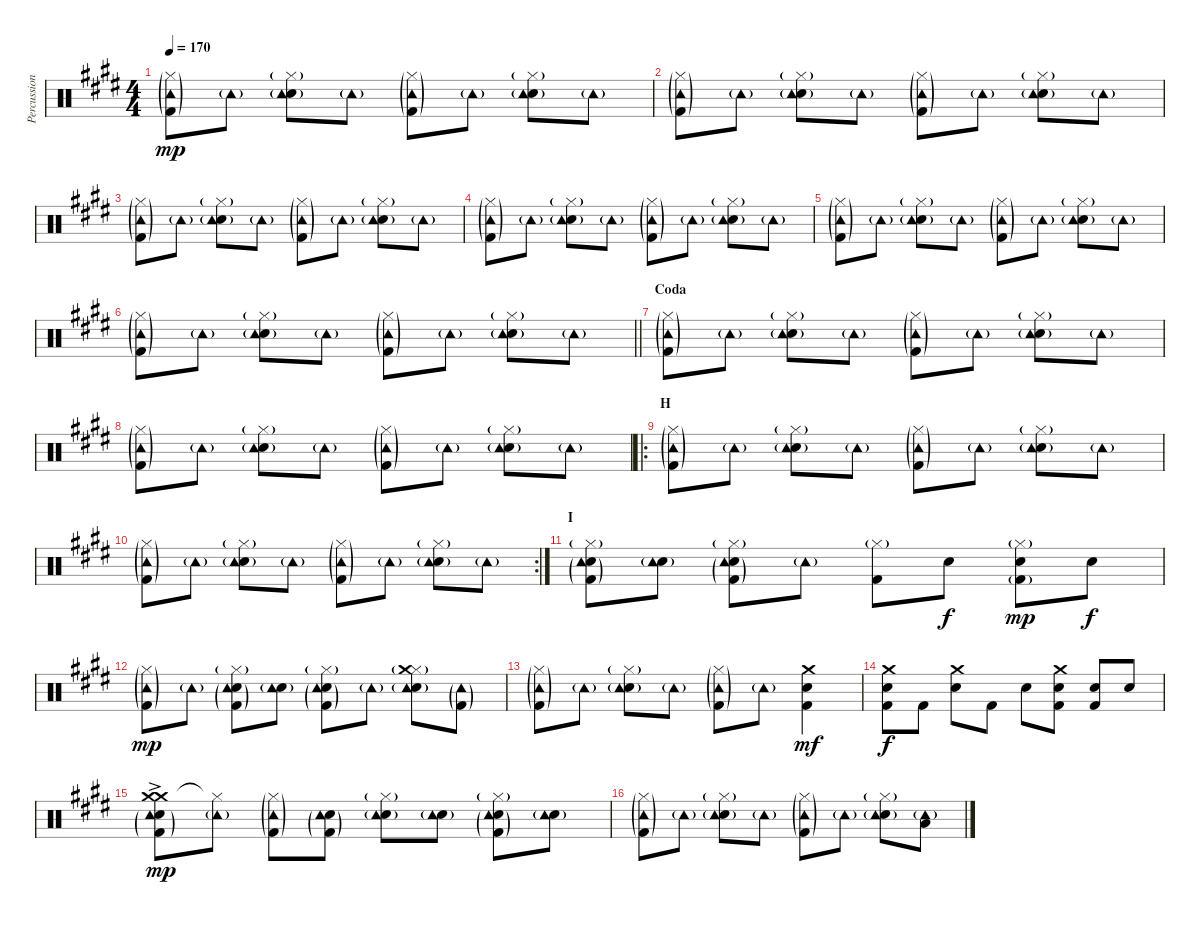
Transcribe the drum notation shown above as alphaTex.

\track ("Percussion" "Percussion") {instrument percussion}
\staff {score}
\articulation defaults
\ts (4 4)
\tempo 170
\clef neutral
\ks e
("Hi-Hat (closed)"{g} "Kick (hit) 2"{g} "Tambourine (hit)"{g}).8{dy mp} "Tambourine (hit)"{g}.8 ("Hi-Hat (closed)"{g} "Snare (hit) 2" "Tambourine (hit)"{g}).8 "Tambourine (hit)"{g}.8 ("Hi-Hat (closed)"{g} "Kick (hit) 2"{g} "Tambourine (hit)"{g}).8 "Tambourine (hit)"{g}.8 ("Hi-Hat (closed)"{g} "Snare (hit) 2" "Tambourine (hit)"{g}).8 "Tambourine (hit)"{g}.8 |
("Hi-Hat (closed)"{g} "Kick (hit) 2"{g} "Tambourine (hit)"{g}).8 "Tambourine (hit)"{g}.8 ("Hi-Hat (closed)"{g} "Snare (hit) 2" "Tambourine (hit)"{g}).8 "Tambourine (hit)"{g}.8 ("Hi-Hat (closed)"{g} "Kick (hit) 2"{g} "Tambourine (hit)"{g}).8 "Tambourine (hit)"{g}.8 ("Hi-Hat (closed)"{g} "Snare (hit) 2" "Tambourine (hit)"{g}).8 "Tambourine (hit)"{g}.8 |
("Hi-Hat (closed)"{g} "Kick (hit) 2"{g} "Tambourine (hit)"{g}).8 "Tambourine (hit)"{g}.8 ("Hi-Hat (closed)"{g} "Snare (hit) 2" "Tambourine (hit)"{g}).8 "Tambourine (hit)"{g}.8 ("Hi-Hat (closed)"{g} "Kick (hit) 2"{g} "Tambourine (hit)"{g}).8 "Tambourine (hit)"{g}.8 ("Hi-Hat (closed)"{g} "Snare (hit) 2" "Tambourine (hit)"{g}).8 "Tambourine (hit)"{g}.8 |
("Hi-Hat (closed)"{g} "Kick (hit) 2"{g} "Tambourine (hit)"{g}).8 "Tambourine (hit)"{g}.8 ("Hi-Hat (closed)"{g} "Snare (hit) 2" "Tambourine (hit)"{g}).8 "Tambourine (hit)"{g}.8 ("Hi-Hat (closed)"{g} "Kick (hit) 2"{g} "Tambourine (hit)"{g}).8 "Tambourine (hit)"{g}.8 ("Hi-Hat (closed)"{g} "Snare (hit) 2" "Tambourine (hit)"{g}).8 "Tambourine (hit)"{g}.8 |
("Hi-Hat (closed)"{g} "Kick (hit) 2"{g} "Tambourine (hit)"{g}).8 "Tambourine (hit)"{g}.8 ("Hi-Hat (closed)"{g} "Snare (hit) 2" "Tambourine (hit)"{g}).8 "Tambourine (hit)"{g}.8 ("Hi-Hat (closed)"{g} "Kick (hit) 2"{g} "Tambourine (hit)"{g}).8 "Tambourine (hit)"{g}.8 ("Hi-Hat (closed)"{g} "Snare (hit) 2" "Tambourine (hit)"{g}).8 "Tambourine (hit)"{g}.8 |
\barLineRight lightlight
("Hi-Hat (closed)"{g} "Kick (hit) 2"{g} "Tambourine (hit)"{g}).8 "Tambourine (hit)"{g}.8 ("Hi-Hat (closed)"{g} "Snare (hit) 2" "Tambourine (hit)"{g}).8 "Tambourine (hit)"{g}.8 ("Hi-Hat (closed)"{g} "Kick (hit) 2"{g} "Tambourine (hit)"{g}).8 "Tambourine (hit)"{g}.8 ("Hi-Hat (closed)"{g} "Snare (hit) 2" "Tambourine (hit)"{g}).8 "Tambourine (hit)"{g}.8 |
\section ("" "Coda")
("Hi-Hat (closed)"{g} "Kick (hit) 2"{g} "Tambourine (hit)"{g}).8 "Tambourine (hit)"{g}.8 ("Hi-Hat (closed)"{g} "Snare (hit) 2" "Tambourine (hit)"{g}).8 "Tambourine (hit)"{g}.8 ("Hi-Hat (closed)"{g} "Kick (hit) 2"{g} "Tambourine (hit)"{g}).8 "Tambourine (hit)"{g}.8 ("Hi-Hat (closed)"{g} "Snare (hit) 2" "Tambourine (hit)"{g}).8 "Tambourine (hit)"{g}.8 |
("Hi-Hat (closed)"{g} "Kick (hit) 2"{g} "Tambourine (hit)"{g}).8 "Tambourine (hit)"{g}.8 ("Hi-Hat (closed)"{g} "Snare (hit) 2" "Tambourine (hit)"{g}).8 "Tambourine (hit)"{g}.8 ("Hi-Hat (closed)"{g} "Kick (hit) 2"{g} "Tambourine (hit)"{g}).8 "Tambourine (hit)"{g}.8 ("Hi-Hat (closed)"{g} "Snare (hit) 2" "Tambourine (hit)"{g}).8 "Tambourine (hit)"{g}.8 |
\ro
\section ("" "H")
("Hi-Hat (closed)"{g} "Kick (hit) 2"{g} "Tambourine (hit)"{g}).8 "Tambourine (hit)"{g}.8 ("Hi-Hat (closed)"{g} "Snare (hit) 2" "Tambourine (hit)"{g}).8 "Tambourine (hit)"{g}.8 ("Hi-Hat (closed)"{g} "Kick (hit) 2"{g} "Tambourine (hit)"{g}).8 "Tambourine (hit)"{g}.8 ("Hi-Hat (closed)"{g} "Snare (hit) 2" "Tambourine (hit)"{g}).8 "Tambourine (hit)"{g}.8 |
\rc 2
("Hi-Hat (closed)"{g} "Kick (hit) 2"{g} "Tambourine (hit)"{g}).8 "Tambourine (hit)"{g}.8 ("Hi-Hat (closed)"{g} "Snare (hit) 2" "Tambourine (hit)"{g}).8 "Tambourine (hit)"{g}.8 ("Hi-Hat (closed)"{g} "Kick (hit) 2"{g} "Tambourine (hit)"{g}).8 "Tambourine (hit)"{g}.8 ("Hi-Hat (closed)"{g} "Snare (hit) 2" "Tambourine (hit)"{g}).8 "Tambourine (hit)"{g}.8 |
\section ("" "I")
("Hi-Hat (closed)"{g} "Snare (hit) 2" "Tambourine (hit)"{g} "Kick (hit) 2"{g}).8 ("Snare (hit) 2" "Tambourine (hit)"{g}).8 ("Hi-Hat (closed)"{g} "Snare (hit) 2" "Tambourine (hit)"{g} "Kick (hit) 2"{g}).8 "Tambourine (hit)"{g}.8 ("Hi-Hat (closed)"{g} "Kick (hit) 2").8 "Snare (hit) 2".8{dy f} ("Hi-Hat (closed)"{g} "Snare (hit) 2" "Kick (hit) 2"{g}).8{dy mp} "Snare (hit) 2".8{dy f} |
("Hi-Hat (closed)"{g} "Kick (hit) 2"{g} "Tambourine (hit)"{g}).8{dy mp} "Tambourine (hit)"{g}.8 ("Hi-Hat (closed)"{g} "Snare (hit) 2" "Tambourine (hit)"{g} "Kick (hit) 2"{g}).8 ("Snare (hit) 2" "Tambourine (hit)"{g}).8 ("Hi-Hat (closed)"{g} "Snare (hit) 2" "Tambourine (hit)"{g} "Kick (hit) 2"{g}).8 "Tambourine (hit)"{g}.8 ("Hi-Hat (closed)"{g} "Crash medium (hit)" "Snare (hit) 2" "Tambourine (hit)"{g}).8 ("Tambourine (hit)"{g} "Kick (hit) 2"{g}).8 |
("Hi-Hat (closed)"{g} "Tambourine (hit)"{g} "Kick (hit) 2"{g}).8 "Tambourine (hit)"{g}.8 ("Hi-Hat (closed)"{g} "Snare (hit) 2" "Tambourine (hit)"{g}).8 "Tambourine (hit)"{g}.8 ("Hi-Hat (closed)"{g} "Kick (hit) 2"{g} "Tambourine (hit)"{g}).8 "Tambourine (hit)"{g}.8 ("Crash medium (hit)" "Snare (hit) 2" "Kick (hit) 2").4{dy mf} |
("Crash medium (hit)" "Snare (hit) 2" "Kick (hit) 2").8{dy f} "Kick (hit) 2".8 ("Crash medium (hit)" "Snare (hit) 2").8 "Kick (hit) 2".8 "Snare (hit) 2".8 ("Crash medium (hit)" "Snare (hit) 2" "Kick (hit) 2").8 ("Snare (hit) 2" "Kick (hit) 2").8 "Snare (hit) 2".8 |
("Crash medium (hit)"{ac} "Crash medium (hit)"{ac} "Snare (hit) 2" "Tambourine (hit)"{g} "Kick (hit) 2"{g}).8{dy mp} ("Hi-Hat (closed)"{t} "Tambourine (hit)"{g}).8 ("Hi-Hat (closed)"{g} "Tambourine (hit)"{g} "Kick (hit) 2"{g}).8 ("Snare (hit) 2" "Tambourine (hit)"{g} "Kick (hit) 2"{g}).8 ("Hi-Hat (closed)"{g} "Snare (hit) 2" "Tambourine (hit)"{g}).8 ("Snare (hit) 2" "Tambourine (hit)"{g}).8 ("Hi-Hat (closed)"{g} "Snare (hit) 2" "Tambourine (hit)"{g} "Kick (hit) 2"{g}).8 ("Snare (hit) 2" "Tambourine (hit)"{g}).8 |
("Hi-Hat (closed)"{g} "Tambourine (hit)"{g} "Kick (hit) 2"{g}).8 "Tambourine (hit)"{g}.8 ("Hi-Hat (closed)"{g} "Snare (hit) 2" "Tambourine (hit)"{g}).8 "Tambourine (hit)"{g}.8 ("Hi-Hat (closed)"{g} "Tambourine (hit)"{g} "Kick (hit) 2"{g}).8 "Tambourine (hit)"{g}.8 ("Hi-Hat (closed)"{g} "Snare (hit) 2" "Tambourine (hit)"{g}).8 ("Low Tom (hit)" "Tambourine (hit)"{g}).8
